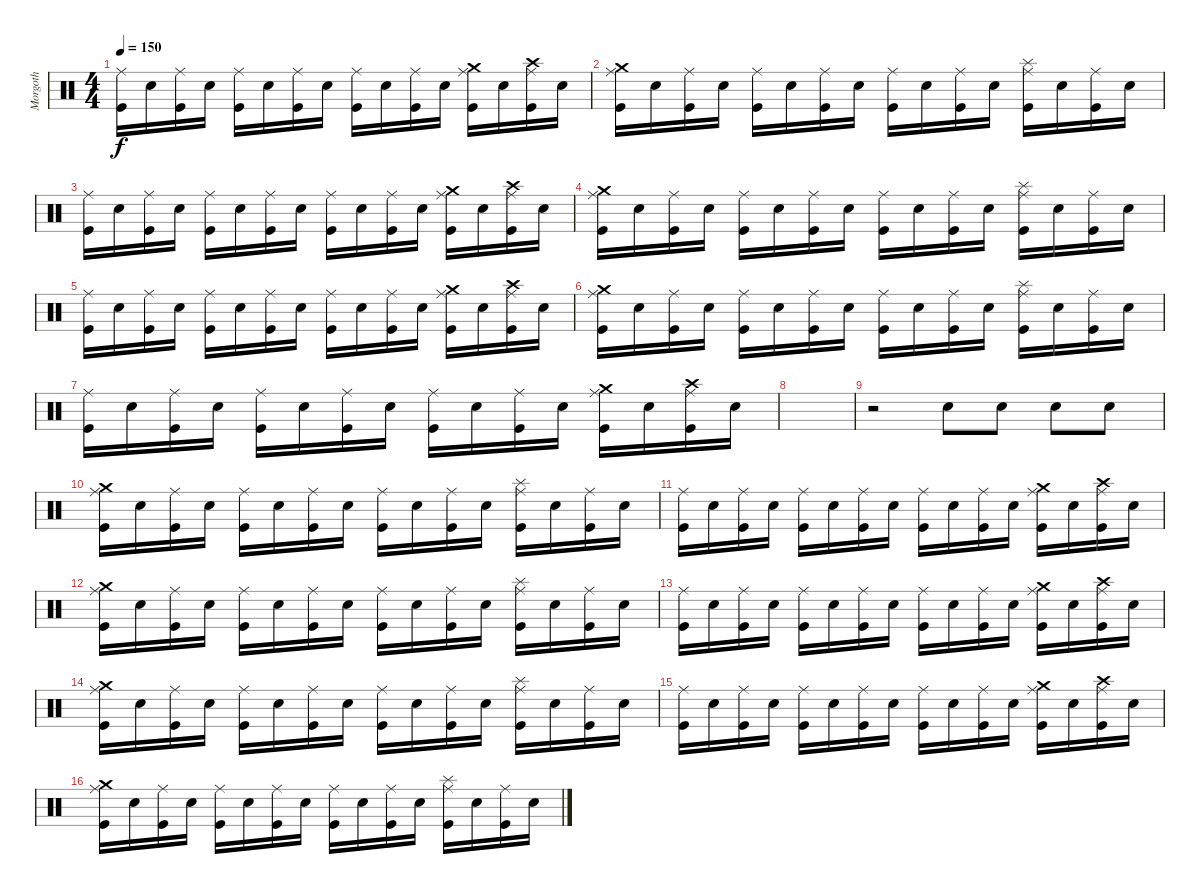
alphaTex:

\track ("Morgoth" "Morgoth") {instrument percussion}
\staff {score}
\articulation defaults
\ts (4 4)
\tempo 150
\clef neutral
\ks c
("Kick (hit)" "Ride (middle)").16{dy f} "Electric Snare (hit)".16 ("Kick (hit)" "Ride (middle)").16 "Electric Snare (hit)".16 ("Kick (hit)" "Ride (middle)").16 "Electric Snare (hit)".16 ("Kick (hit)" "Ride (middle)").16 "Electric Snare (hit)".16 ("Kick (hit)" "Ride (middle)").16 "Electric Snare (hit)".16 ("Kick (hit)" "Ride (middle)").16 "Electric Snare (hit)".16 ("Kick (hit)" "Ride (middle)" "Crash medium (hit)").16 "Electric Snare (hit)".16 ("Kick (hit)" "Ride (middle)" "Crash high (hit)").16 "Electric Snare (hit)".16 |
("Kick (hit)" "Ride (middle)" "Crash medium (hit)").16 "Electric Snare (hit)".16 ("Kick (hit)" "Ride (middle)").16 "Electric Snare (hit)".16 ("Kick (hit)" "Ride (middle)").16 "Electric Snare (hit)".16 ("Kick (hit)" "Ride (middle)").16 "Electric Snare (hit)".16 ("Kick (hit)" "Ride (middle)").16 "Electric Snare (hit)".16 ("Kick (hit)" "Ride (middle)").16 "Electric Snare (hit)".16 ("Kick (hit)" "Ride (middle)" "Splash (hit)").16 "Electric Snare (hit)".16 ("Kick (hit)" "Ride (middle)").16 "Electric Snare (hit)".16 |
("Kick (hit)" "Ride (middle)").16 "Electric Snare (hit)".16 ("Kick (hit)" "Ride (middle)").16 "Electric Snare (hit)".16 ("Kick (hit)" "Ride (middle)").16 "Electric Snare (hit)".16 ("Kick (hit)" "Ride (middle)").16 "Electric Snare (hit)".16 ("Kick (hit)" "Ride (middle)").16 "Electric Snare (hit)".16 ("Kick (hit)" "Ride (middle)").16 "Electric Snare (hit)".16 ("Kick (hit)" "Ride (middle)" "Crash medium (hit)").16 "Electric Snare (hit)".16 ("Kick (hit)" "Ride (middle)" "Crash high (hit)").16 "Electric Snare (hit)".16 |
("Kick (hit)" "Ride (middle)" "Crash medium (hit)").16 "Electric Snare (hit)".16 ("Kick (hit)" "Ride (middle)").16 "Electric Snare (hit)".16 ("Kick (hit)" "Ride (middle)").16 "Electric Snare (hit)".16 ("Kick (hit)" "Ride (middle)").16 "Electric Snare (hit)".16 ("Kick (hit)" "Ride (middle)").16 "Electric Snare (hit)".16 ("Kick (hit)" "Ride (middle)").16 "Electric Snare (hit)".16 ("Kick (hit)" "Ride (middle)" "Splash (hit)").16 "Electric Snare (hit)".16 ("Kick (hit)" "Ride (middle)").16 "Electric Snare (hit)".16 |
("Kick (hit)" "Ride (middle)").16 "Electric Snare (hit)".16 ("Kick (hit)" "Ride (middle)").16 "Electric Snare (hit)".16 ("Kick (hit)" "Ride (middle)").16 "Electric Snare (hit)".16 ("Kick (hit)" "Ride (middle)").16 "Electric Snare (hit)".16 ("Kick (hit)" "Ride (middle)").16 "Electric Snare (hit)".16 ("Kick (hit)" "Ride (middle)").16 "Electric Snare (hit)".16 ("Kick (hit)" "Ride (middle)" "Crash medium (hit)").16 "Electric Snare (hit)".16 ("Kick (hit)" "Ride (middle)" "Crash high (hit)").16 "Electric Snare (hit)".16 |
("Kick (hit)" "Ride (middle)" "Crash medium (hit)").16 "Electric Snare (hit)".16 ("Kick (hit)" "Ride (middle)").16 "Electric Snare (hit)".16 ("Kick (hit)" "Ride (middle)").16 "Electric Snare (hit)".16 ("Kick (hit)" "Ride (middle)").16 "Electric Snare (hit)".16 ("Kick (hit)" "Ride (middle)").16 "Electric Snare (hit)".16 ("Kick (hit)" "Ride (middle)").16 "Electric Snare (hit)".16 ("Kick (hit)" "Ride (middle)" "Splash (hit)").16 "Electric Snare (hit)".16 ("Kick (hit)" "Ride (middle)").16 "Electric Snare (hit)".16 |
("Kick (hit)" "Ride (middle)").16 "Electric Snare (hit)".16 ("Kick (hit)" "Ride (middle)").16 "Electric Snare (hit)".16 ("Kick (hit)" "Ride (middle)").16 "Electric Snare (hit)".16 ("Kick (hit)" "Ride (middle)").16 "Electric Snare (hit)".16 ("Kick (hit)" "Ride (middle)").16 "Electric Snare (hit)".16 ("Kick (hit)" "Ride (middle)").16 "Electric Snare (hit)".16 ("Kick (hit)" "Ride (middle)" "Crash medium (hit)").16 "Electric Snare (hit)".16 ("Kick (hit)" "Ride (middle)" "Crash high (hit)").16 "Electric Snare (hit)".16 |
|
r.2 "Electric Snare (hit)".8 "Electric Snare (hit)".8 "Electric Snare (hit)".8 "Electric Snare (hit)".8 |
("Kick (hit)" "Ride (middle)" "Crash medium (hit)").16 "Electric Snare (hit)".16 ("Kick (hit)" "Ride (middle)").16 "Electric Snare (hit)".16 ("Kick (hit)" "Ride (middle)").16 "Electric Snare (hit)".16 ("Kick (hit)" "Ride (middle)").16 "Electric Snare (hit)".16 ("Kick (hit)" "Ride (middle)").16 "Electric Snare (hit)".16 ("Kick (hit)" "Ride (middle)").16 "Electric Snare (hit)".16 ("Kick (hit)" "Ride (middle)" "Splash (hit)").16 "Electric Snare (hit)".16 ("Kick (hit)" "Ride (middle)").16 "Electric Snare (hit)".16 |
("Kick (hit)" "Ride (middle)").16 "Electric Snare (hit)".16 ("Kick (hit)" "Ride (middle)").16 "Electric Snare (hit)".16 ("Kick (hit)" "Ride (middle)").16 "Electric Snare (hit)".16 ("Kick (hit)" "Ride (middle)").16 "Electric Snare (hit)".16 ("Kick (hit)" "Ride (middle)").16 "Electric Snare (hit)".16 ("Kick (hit)" "Ride (middle)").16 "Electric Snare (hit)".16 ("Kick (hit)" "Ride (middle)" "Crash medium (hit)").16 "Electric Snare (hit)".16 ("Kick (hit)" "Ride (middle)" "Crash high (hit)").16 "Electric Snare (hit)".16 |
("Kick (hit)" "Ride (middle)" "Crash medium (hit)").16 "Electric Snare (hit)".16 ("Kick (hit)" "Ride (middle)").16 "Electric Snare (hit)".16 ("Kick (hit)" "Ride (middle)").16 "Electric Snare (hit)".16 ("Kick (hit)" "Ride (middle)").16 "Electric Snare (hit)".16 ("Kick (hit)" "Ride (middle)").16 "Electric Snare (hit)".16 ("Kick (hit)" "Ride (middle)").16 "Electric Snare (hit)".16 ("Kick (hit)" "Ride (middle)" "Splash (hit)").16 "Electric Snare (hit)".16 ("Kick (hit)" "Ride (middle)").16 "Electric Snare (hit)".16 |
("Kick (hit)" "Ride (middle)").16 "Electric Snare (hit)".16 ("Kick (hit)" "Ride (middle)").16 "Electric Snare (hit)".16 ("Kick (hit)" "Ride (middle)").16 "Electric Snare (hit)".16 ("Kick (hit)" "Ride (middle)").16 "Electric Snare (hit)".16 ("Kick (hit)" "Ride (middle)").16 "Electric Snare (hit)".16 ("Kick (hit)" "Ride (middle)").16 "Electric Snare (hit)".16 ("Kick (hit)" "Ride (middle)" "Crash medium (hit)").16 "Electric Snare (hit)".16 ("Kick (hit)" "Ride (middle)" "Crash high (hit)").16 "Electric Snare (hit)".16 |
("Kick (hit)" "Ride (middle)" "Crash medium (hit)").16 "Electric Snare (hit)".16 ("Kick (hit)" "Ride (middle)").16 "Electric Snare (hit)".16 ("Kick (hit)" "Ride (middle)").16 "Electric Snare (hit)".16 ("Kick (hit)" "Ride (middle)").16 "Electric Snare (hit)".16 ("Kick (hit)" "Ride (middle)").16 "Electric Snare (hit)".16 ("Kick (hit)" "Ride (middle)").16 "Electric Snare (hit)".16 ("Kick (hit)" "Ride (middle)" "Splash (hit)").16 "Electric Snare (hit)".16 ("Kick (hit)" "Ride (middle)").16 "Electric Snare (hit)".16 |
("Kick (hit)" "Ride (middle)").16 "Electric Snare (hit)".16 ("Kick (hit)" "Ride (middle)").16 "Electric Snare (hit)".16 ("Kick (hit)" "Ride (middle)").16 "Electric Snare (hit)".16 ("Kick (hit)" "Ride (middle)").16 "Electric Snare (hit)".16 ("Kick (hit)" "Ride (middle)").16 "Electric Snare (hit)".16 ("Kick (hit)" "Ride (middle)").16 "Electric Snare (hit)".16 ("Kick (hit)" "Ride (middle)" "Crash medium (hit)").16 "Electric Snare (hit)".16 ("Kick (hit)" "Ride (middle)" "Crash high (hit)").16 "Electric Snare (hit)".16 |
("Kick (hit)" "Ride (middle)" "Crash medium (hit)").16 "Electric Snare (hit)".16 ("Kick (hit)" "Ride (middle)").16 "Electric Snare (hit)".16 ("Kick (hit)" "Ride (middle)").16 "Electric Snare (hit)".16 ("Kick (hit)" "Ride (middle)").16 "Electric Snare (hit)".16 ("Kick (hit)" "Ride (middle)").16 "Electric Snare (hit)".16 ("Kick (hit)" "Ride (middle)").16 "Electric Snare (hit)".16 ("Kick (hit)" "Ride (middle)" "Splash (hit)").16 "Electric Snare (hit)".16 ("Kick (hit)" "Ride (middle)").16 "Electric Snare (hit)".16
